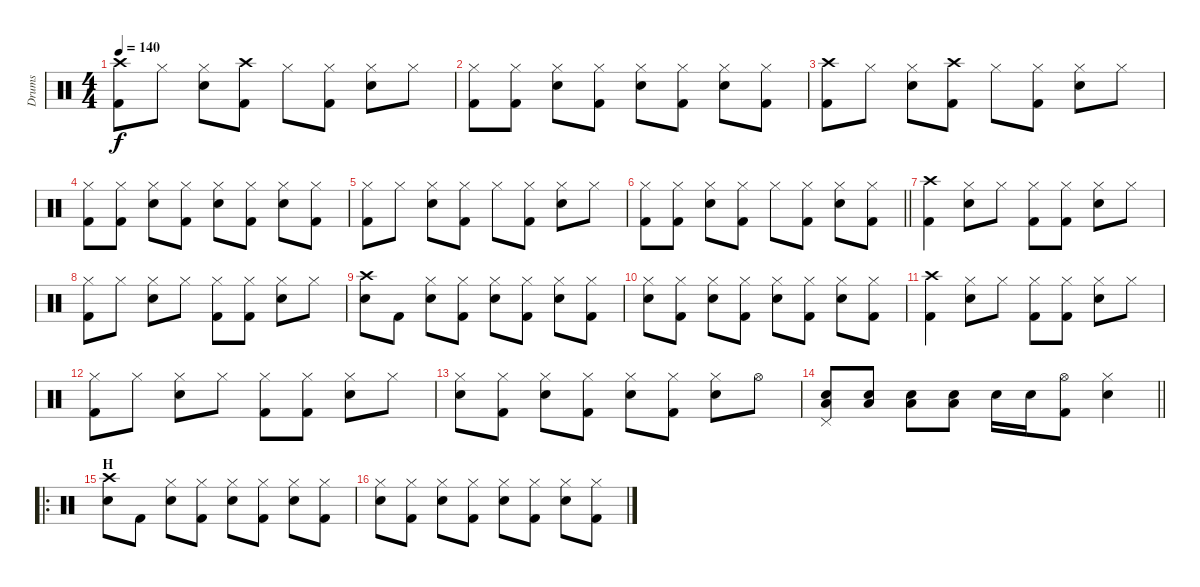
\track ("Drums" "Drums") {instrument percussion}
\staff {score}
\articulation defaults
\ts (4 4)
\tempo 140
\clef neutral
\ks c
("Crash high (hit)" "Kick (hit) 2").8{dy f} "Hi-Hat (closed)".8 ("Hi-Hat (closed)" "Snare (hit) 2").8 ("Crash high (hit)" "Kick (hit) 2").8 "Hi-Hat (closed)".8 ("Hi-Hat (closed)" "Kick (hit) 2").8 ("Hi-Hat (closed)" "Snare (hit) 2").8 "Hi-Hat (closed)".8 |
("Hi-Hat (closed)" "Kick (hit) 2").8 ("Hi-Hat (closed)" "Kick (hit) 2").8 ("Hi-Hat (closed)" "Snare (hit) 2").8 ("Hi-Hat (closed)" "Kick (hit) 2").8 ("Hi-Hat (closed)" "Snare (hit) 2").8 ("Hi-Hat (closed)" "Kick (hit) 2").8 ("Hi-Hat (closed)" "Snare (hit) 2").8 ("Hi-Hat (closed)" "Kick (hit) 2").8 |
("Crash high (hit)" "Kick (hit) 2").8 "Hi-Hat (closed)".8 ("Hi-Hat (closed)" "Snare (hit) 2").8 ("Crash high (hit)" "Kick (hit) 2").8 "Hi-Hat (closed)".8 ("Hi-Hat (closed)" "Kick (hit) 2").8 ("Hi-Hat (closed)" "Snare (hit) 2").8 "Hi-Hat (closed)".8 |
("Hi-Hat (closed)" "Kick (hit) 2").8 ("Hi-Hat (closed)" "Kick (hit) 2").8 ("Hi-Hat (closed)" "Snare (hit) 2").8 ("Hi-Hat (closed)" "Kick (hit) 2").8 ("Hi-Hat (closed)" "Snare (hit) 2").8 ("Hi-Hat (closed)" "Kick (hit) 2").8 ("Hi-Hat (closed)" "Snare (hit) 2").8 ("Hi-Hat (closed)" "Kick (hit) 2").8 |
("Hi-Hat (closed)" "Kick (hit) 2").8 "Hi-Hat (closed)".8 ("Hi-Hat (closed)" "Snare (hit) 2").8 ("Hi-Hat (closed)" "Kick (hit) 2").8 "Hi-Hat (closed)".8 ("Hi-Hat (closed)" "Kick (hit) 2").8 ("Hi-Hat (closed)" "Snare (hit) 2").8 "Hi-Hat (closed)".8 |
\barLineRight lightlight
("Hi-Hat (closed)" "Kick (hit) 2").8 ("Hi-Hat (closed)" "Kick (hit) 2").8 ("Hi-Hat (closed)" "Snare (hit) 2").8 ("Hi-Hat (closed)" "Kick (hit) 2").8 "Hi-Hat (closed)".8 ("Hi-Hat (closed)" "Kick (hit) 2").8 ("Hi-Hat (closed)" "Snare (hit) 2").8 ("Hi-Hat (closed)" "Kick (hit) 2").8 |
("Crash high (hit)" "Kick (hit) 2").4 ("Hi-Hat (closed)" "Snare (hit) 2").8 "Hi-Hat (closed)".8 ("Hi-Hat (closed)" "Kick (hit) 2").8 ("Hi-Hat (closed)" "Kick (hit) 2").8 ("Hi-Hat (closed)" "Snare (hit) 2").8 "Hi-Hat (closed)".8 |
("Hi-Hat (closed)" "Kick (hit) 2").8 "Hi-Hat (closed)".8 ("Hi-Hat (closed)" "Snare (hit) 2").8 "Hi-Hat (closed)".8 ("Hi-Hat (closed)" "Kick (hit) 2").8 ("Hi-Hat (closed)" "Kick (hit) 2").8 ("Hi-Hat (closed)" "Snare (hit) 2").8 "Hi-Hat (closed)".8 |
("Crash high (hit)" "Snare (hit) 2").8 "Kick (hit) 2".8 ("Hi-Hat (closed)" "Snare (hit) 2").8 ("Hi-Hat (closed)" "Kick (hit) 2").8 ("Hi-Hat (closed)" "Snare (hit) 2").8 ("Hi-Hat (closed)" "Kick (hit) 2").8 ("Hi-Hat (closed)" "Snare (hit) 2").8 ("Hi-Hat (closed)" "Kick (hit) 2").8 |
("Hi-Hat (closed)" "Snare (hit) 2").8 ("Hi-Hat (closed)" "Kick (hit) 2").8 ("Hi-Hat (closed)" "Snare (hit) 2").8 ("Hi-Hat (closed)" "Kick (hit) 2").8 ("Hi-Hat (closed)" "Snare (hit) 2").8 ("Hi-Hat (closed)" "Kick (hit) 2").8 ("Hi-Hat (closed)" "Snare (hit) 2").8 ("Hi-Hat (closed)" "Kick (hit) 2").8 |
("Crash high (hit)" "Kick (hit) 2").4 ("Hi-Hat (closed)" "Snare (hit) 2").8 "Hi-Hat (closed)".8 ("Hi-Hat (closed)" "Kick (hit) 2").8 ("Hi-Hat (closed)" "Kick (hit) 2").8 ("Hi-Hat (closed)" "Snare (hit) 2").8 "Hi-Hat (closed)".8 |
("Hi-Hat (closed)" "Kick (hit) 2").8 "Hi-Hat (closed)".8 ("Hi-Hat (closed)" "Snare (hit) 2").8 "Hi-Hat (closed)".8 ("Hi-Hat (closed)" "Kick (hit) 2").8 ("Hi-Hat (closed)" "Kick (hit) 2").8 ("Hi-Hat (closed)" "Snare (hit) 2").8 "Hi-Hat (closed)".8 |
("Hi-Hat (closed)" "Snare (hit) 2").8 ("Hi-Hat (closed)" "Kick (hit) 2").8 ("Hi-Hat (closed)" "Snare (hit) 2").8 ("Hi-Hat (closed)" "Kick (hit) 2").8 ("Hi-Hat (closed)" "Snare (hit) 2").8 ("Hi-Hat (closed)" "Kick (hit) 2").8 ("Hi-Hat (closed)" "Snare (hit) 2").8 "Hi-Hat (open)".8 |
\barLineRight lightlight
("Snare (hit) 2" "Low Tom (hit)" "Pedal Hi-Hat (hit)").8 ("Snare (hit) 2" "Low Tom (hit)").8 ("Snare (hit) 2" "Low Tom (hit)").8 ("Snare (hit) 2" "Low Tom (hit)").8 "Snare (hit) 2".16 "Snare (hit) 2".16 ("Hi-Hat (open)" "Kick (hit) 2").8 ("Hi-Hat (closed)" "Snare (hit) 2").4 |
\ro
\section ("" "H")
("Crash high (hit)" "Snare (hit) 2").8 "Kick (hit) 2".8 ("Hi-Hat (closed)" "Snare (hit) 2").8 ("Hi-Hat (closed)" "Kick (hit) 2").8 ("Hi-Hat (closed)" "Snare (hit) 2").8 ("Hi-Hat (closed)" "Kick (hit) 2").8 ("Hi-Hat (closed)" "Snare (hit) 2").8 ("Hi-Hat (closed)" "Kick (hit) 2").8 |
("Hi-Hat (closed)" "Snare (hit) 2").8 ("Hi-Hat (closed)" "Kick (hit) 2").8 ("Hi-Hat (closed)" "Snare (hit) 2").8 ("Hi-Hat (closed)" "Kick (hit) 2").8 ("Hi-Hat (closed)" "Snare (hit) 2").8 ("Hi-Hat (closed)" "Kick (hit) 2").8 ("Hi-Hat (closed)" "Snare (hit) 2").8 ("Hi-Hat (closed)" "Kick (hit) 2").8
